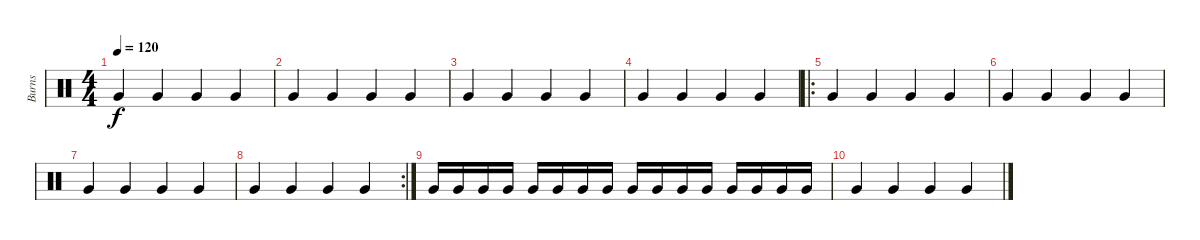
\track ("Burns" "Burns") {instrument percussion}
\staff {score}
\articulation defaults
\ts (4 4)
\tempo 120
\clef neutral
\ks c "Very Low Tom (hit)".4{dy f} "Very Low Tom (hit)".4 "Very Low Tom (hit)".4 "Very Low Tom (hit)".4
|
"Very Low Tom (hit)".4 "Very Low Tom (hit)".4 "Very Low Tom (hit)".4 "Very Low Tom (hit)".4 |
"Very Low Tom (hit)".4 "Very Low Tom (hit)".4 "Very Low Tom (hit)".4 "Very Low Tom (hit)".4 |
"Very Low Tom (hit)".4 "Very Low Tom (hit)".4 "Very Low Tom (hit)".4 "Very Low Tom (hit)".4 |
\ro "Very Low Tom (hit)".4 "Very Low Tom (hit)".4 "Very Low Tom (hit)".4 "Very Low Tom (hit)".4
|
"Very Low Tom (hit)".4 "Very Low Tom (hit)".4 "Very Low Tom (hit)".4 "Very Low Tom (hit)".4 |
"Very Low Tom (hit)".4 "Very Low Tom (hit)".4 "Very Low Tom (hit)".4 "Very Low Tom (hit)".4 |
\rc 2 "Very Low Tom (hit)".4 "Very Low Tom (hit)".4 "Very Low Tom (hit)".4 "Very Low Tom (hit)".4
|
"Very Low Tom (hit)".16 "Very Low Tom (hit)".16 "Very Low Tom (hit)".16 "Very Low Tom (hit)".16 "Very Low Tom (hit)".16 "Very Low Tom (hit)".16 "Very Low Tom (hit)".16 "Very Low Tom (hit)".16 "Very Low Tom (hit)".16 "Very Low Tom (hit)".16 "Very Low Tom (hit)".16 "Very Low Tom (hit)".16 "Very Low Tom (hit)".16 "Very Low Tom (hit)".16 "Very Low Tom (hit)".16 "Very Low Tom (hit)".16 |
"Very Low Tom (hit)".4 "Very Low Tom (hit)".4 "Very Low Tom (hit)".4 "Very Low Tom (hit)".4
